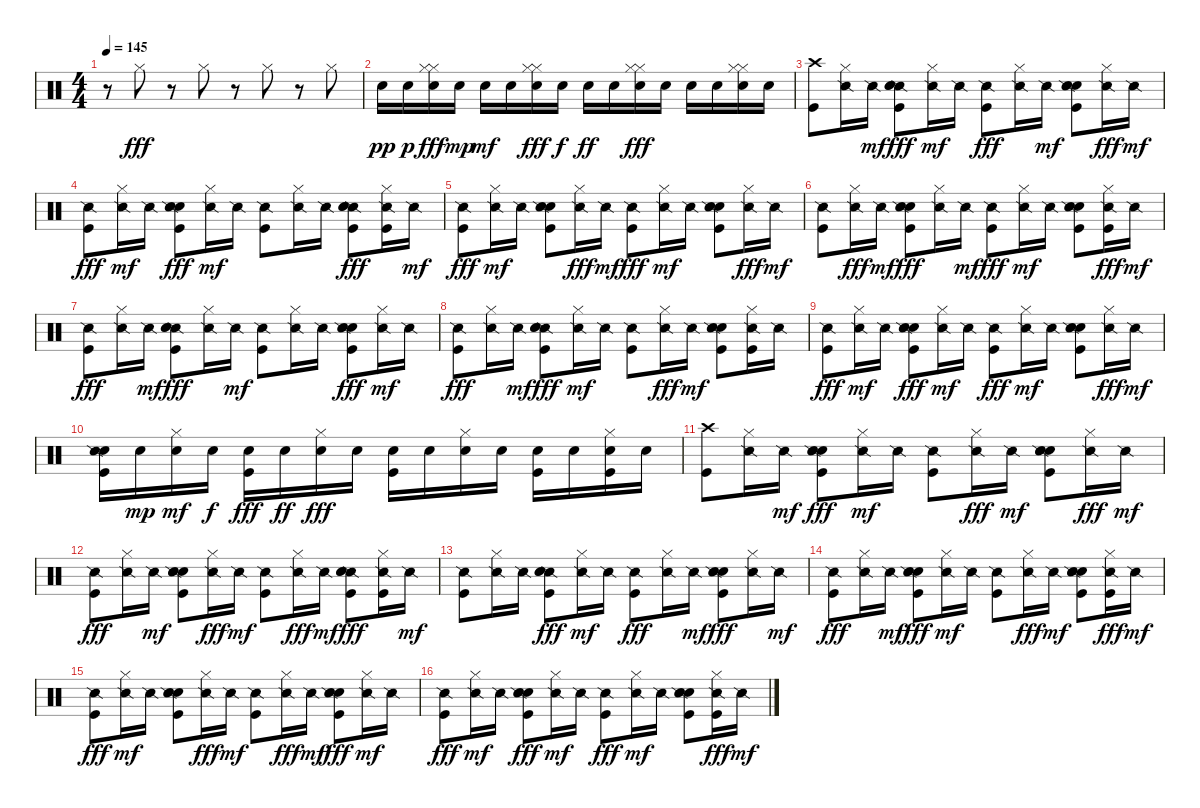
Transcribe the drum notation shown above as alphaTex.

\track "" {instrument percussion}
\staff {score}
\articulation defaults
\ts (4 4)
\tempo 145
\clef neutral
\ks c
r.8{dy fff} "Hi-Hat (closed)".8 r.8 "Hi-Hat (closed)".8 r.8 "Hi-Hat (closed)".8 r.8 "Hi-Hat (closed)".8 |
"Snare (hit) 2".16{dy pp} "Snare (hit) 2".16{dy p} ("Snare (hit) 2" "Hi-Hat (closed)" "Hi-Hat (closed)").16{dy fff} "Snare (hit) 2".16{dy mp} "Snare (hit) 2".16{dy mf} "Snare (hit) 2".16 ("Hi-Hat (closed)" "Snare (hit) 2" "Hi-Hat (closed)").16{dy fff} "Snare (hit) 2".16{dy f} "Snare (hit) 2".16{dy ff} "Snare (hit) 2".16 ("Hi-Hat (closed)" "Snare (hit) 2" "Hi-Hat (closed)").16{dy fff} "Snare (hit) 2".16 "Snare (hit) 2".16 "Snare (hit) 2".16 ("Snare (hit) 2" "Hi-Hat (closed)" "Hi-Hat (closed)").16 "Snare (hit) 2".16 |
("Kick (hit)" "Crash high (hit)").8 ("Snare (side stick) 2" "Hi-Hat (closed)").16 "Snare (side stick) 2".16{dy mf} ("Snare (side stick) 2" "Hand Clap (hit)" "Electric Snare (hit)" "Kick (hit)").8{dy fff} ("Hi-Hat (closed)" "Snare (side stick) 2").16{dy mf} "Snare (side stick) 2".16 ("Snare (side stick) 2" "Kick (hit)").8{dy fff} ("Snare (side stick) 2" "Hi-Hat (closed)").16 "Snare (side stick) 2".16{dy mf} ("Electric Snare (hit)" "Hand Clap (hit)" "Kick (hit)" "Snare (side stick) 2").8 ("Snare (side stick) 2" "Hi-Hat (closed)").16{dy fff} "Snare (side stick) 2".16{dy mf} |
("Snare (side stick) 2" "Kick (hit)").8{dy fff} ("Hi-Hat (closed)" "Snare (side stick) 2").16{dy mf} "Snare (side stick) 2".16 ("Hand Clap (hit)" "Snare (side stick) 2" "Electric Snare (hit)" "Kick (hit)").8{dy fff} ("Hi-Hat (closed)" "Snare (side stick) 2").16{dy mf} "Snare (side stick) 2".16 ("Kick (hit)" "Snare (side stick) 2").8 ("Hi-Hat (closed)" "Snare (side stick) 2").16 "Snare (side stick) 2".16 ("Snare (side stick) 2" "Electric Snare (hit)" "Kick (hit)" "Hand Clap (hit)").8{dy fff} ("Snare (side stick) 2" "Kick (hit)" "Hi-Hat (closed)").16 "Snare (side stick) 2".16{dy mf} |
("Snare (side stick) 2" "Kick (hit)").8{dy fff} ("Hi-Hat (closed)" "Snare (side stick) 2").16{dy mf} "Snare (side stick) 2".16 ("Hand Clap (hit)" "Kick (hit)" "Electric Snare (hit)" "Snare (side stick) 2").8 ("Snare (side stick) 2" "Hi-Hat (closed)").16{dy fff} "Snare (side stick) 2".16{dy mf} ("Snare (side stick) 2" "Kick (hit)").8{dy fff} ("Hi-Hat (closed)" "Snare (side stick) 2").16{dy mf} "Snare (side stick) 2".16 ("Hand Clap (hit)" "Kick (hit)" "Snare (side stick) 2" "Electric Snare (hit)").8 ("Snare (side stick) 2" "Hi-Hat (closed)").16{dy fff} "Snare (side stick) 2".16{dy mf} |
("Kick (hit)" "Snare (side stick) 2").8 ("Snare (side stick) 2" "Hi-Hat (closed)").16{dy fff} "Snare (side stick) 2".16{dy mf} ("Electric Snare (hit)" "Hand Clap (hit)" "Snare (side stick) 2" "Kick (hit)").8{dy fff} ("Snare (side stick) 2" "Hi-Hat (closed)").16 "Snare (side stick) 2".16{dy mf} ("Snare (side stick) 2" "Kick (hit)").8{dy fff} ("Hi-Hat (closed)" "Snare (side stick) 2").16{dy mf} "Snare (side stick) 2".16 ("Kick (hit)" "Hand Clap (hit)" "Electric Snare (hit)" "Snare (side stick) 2").8 ("Snare (side stick) 2" "Hi-Hat (closed)" "Kick (hit)").16{dy fff} "Snare (side stick) 2".16{dy mf} |
("Snare (side stick) 2" "Kick (hit)").8{dy fff} ("Snare (side stick) 2" "Hi-Hat (closed)").16 "Snare (side stick) 2".16{dy mf} ("Snare (side stick) 2" "Kick (hit)" "Electric Snare (hit)" "Hand Clap (hit)").8{dy fff} ("Snare (side stick) 2" "Hi-Hat (closed)").16 "Snare (side stick) 2".16{dy mf} ("Kick (hit)" "Snare (side stick) 2").8 ("Hi-Hat (closed)" "Snare (side stick) 2").16 "Snare (side stick) 2".16 ("Kick (hit)" "Electric Snare (hit)" "Snare (side stick) 2" "Hand Clap (hit)").8{dy fff} ("Hi-Hat (closed)" "Snare (side stick) 2").16{dy mf} "Snare (side stick) 2".16 |
("Snare (side stick) 2" "Kick (hit)").8{dy fff} ("Snare (side stick) 2" "Hi-Hat (closed)").16 "Snare (side stick) 2".16{dy mf} ("Snare (side stick) 2" "Electric Snare (hit)" "Kick (hit)" "Hand Clap (hit)").8{dy fff} ("Hi-Hat (closed)" "Snare (side stick) 2").16{dy mf} "Snare (side stick) 2".16 ("Kick (hit)" "Snare (side stick) 2").8 ("Snare (side stick) 2" "Hi-Hat (closed)").16{dy fff} "Snare (side stick) 2".16{dy mf} ("Kick (hit)" "Hand Clap (hit)" "Snare (side stick) 2" "Electric Snare (hit)").8 ("Kick (hit)" "Hi-Hat (closed)" "Snare (side stick) 2").16 "Snare (side stick) 2".16 |
("Snare (side stick) 2" "Kick (hit)").8{dy fff} ("Hi-Hat (closed)" "Snare (side stick) 2").16{dy mf} "Snare (side stick) 2".16 ("Hand Clap (hit)" "Snare (side stick) 2" "Electric Snare (hit)" "Kick (hit)").8{dy fff} ("Hi-Hat (closed)" "Snare (side stick) 2").16{dy mf} "Snare (side stick) 2".16 ("Snare (side stick) 2" "Kick (hit)").8{dy fff} ("Hi-Hat (closed)" "Snare (side stick) 2").16{dy mf} "Snare (side stick) 2".16 ("Kick (hit)" "Electric Snare (hit)" "Hand Clap (hit)" "Snare (side stick) 2").8 ("Snare (side stick) 2" "Hi-Hat (closed)").16{dy fff} "Snare (side stick) 2".16{dy mf} |
("Snare (hit) 2" "Kick (hit)" "Snare (side stick) 2").16 "Snare (hit) 2".16{dy mp} ("Hi-Hat (closed)" "Snare (hit) 2").16{dy mf} "Snare (hit) 2".16{dy f} ("Snare (hit) 2" "Kick (hit)").16{dy fff} "Snare (hit) 2".16{dy ff} ("Snare (hit) 2" "Hi-Hat (closed)").16{dy fff} "Snare (hit) 2".16 ("Snare (hit) 2" "Kick (hit)").16 "Snare (hit) 2".16 ("Snare (hit) 2" "Hi-Hat (closed)").16 "Snare (hit) 2".16 ("Kick (hit)" "Snare (hit) 2").16 "Snare (hit) 2".16 ("Hi-Hat (closed)" "Kick (hit)" "Snare (hit) 2").16 "Snare (hit) 2".16 |
("Kick (hit)" "Crash high (hit)").8 ("Snare (side stick) 2" "Hi-Hat (closed)").16 "Snare (side stick) 2".16{dy mf} ("Hand Clap (hit)" "Snare (side stick) 2" "Electric Snare (hit)" "Kick (hit)").8{dy fff} ("Hi-Hat (closed)" "Snare (side stick) 2").16{dy mf} "Snare (side stick) 2".16 ("Kick (hit)" "Snare (side stick) 2").8 ("Snare (side stick) 2" "Hi-Hat (closed)").16{dy fff} "Snare (side stick) 2".16{dy mf} ("Kick (hit)" "Hand Clap (hit)" "Electric Snare (hit)" "Snare (side stick) 2").8 ("Snare (side stick) 2" "Hi-Hat (closed)").16{dy fff} "Snare (side stick) 2".16{dy mf} |
("Snare (side stick) 2" "Kick (hit)").8{dy fff} ("Snare (side stick) 2" "Hi-Hat (closed)").16 "Snare (side stick) 2".16{dy mf} ("Kick (hit)" "Hand Clap (hit)" "Snare (side stick) 2" "Electric Snare (hit)").8 ("Snare (side stick) 2" "Hi-Hat (closed)").16{dy fff} "Snare (side stick) 2".16{dy mf} ("Kick (hit)" "Snare (side stick) 2").8 ("Snare (side stick) 2" "Hi-Hat (closed)").16{dy fff} "Snare (side stick) 2".16{dy mf} ("Snare (side stick) 2" "Kick (hit)" "Electric Snare (hit)" "Hand Clap (hit)").8{dy fff} ("Kick (hit)" "Snare (side stick) 2" "Hi-Hat (closed)").16 "Snare (side stick) 2".16{dy mf} |
("Kick (hit)" "Snare (side stick) 2").8 ("Hi-Hat (closed)" "Snare (side stick) 2").16 "Snare (side stick) 2".16 ("Snare (side stick) 2" "Kick (hit)" "Hand Clap (hit)" "Electric Snare (hit)").8{dy fff} ("Hi-Hat (closed)" "Snare (side stick) 2").16{dy mf} "Snare (side stick) 2".16 ("Snare (side stick) 2" "Kick (hit)").8{dy fff} ("Snare (side stick) 2" "Hi-Hat (closed)").16 "Snare (side stick) 2".16{dy mf} ("Electric Snare (hit)" "Kick (hit)" "Snare (side stick) 2" "Hand Clap (hit)").8{dy fff} ("Snare (side stick) 2" "Hi-Hat (closed)").16 "Snare (side stick) 2".16{dy mf} |
("Snare (side stick) 2" "Kick (hit)").8{dy fff} ("Snare (side stick) 2" "Hi-Hat (closed)").16 "Snare (side stick) 2".16{dy mf} ("Hand Clap (hit)" "Snare (side stick) 2" "Kick (hit)" "Electric Snare (hit)").8{dy fff} ("Hi-Hat (closed)" "Snare (side stick) 2").16{dy mf} "Snare (side stick) 2".16 ("Kick (hit)" "Snare (side stick) 2").8 ("Snare (side stick) 2" "Hi-Hat (closed)").16{dy fff} "Snare (side stick) 2".16{dy mf} ("Hand Clap (hit)" "Kick (hit)" "Electric Snare (hit)" "Snare (side stick) 2").8 ("Hi-Hat (closed)" "Snare (side stick) 2" "Kick (hit)").16{dy fff} "Snare (side stick) 2".16{dy mf} |
("Snare (side stick) 2" "Kick (hit)").8{dy fff} ("Hi-Hat (closed)" "Snare (side stick) 2").16{dy mf} "Snare (side stick) 2".16 ("Hand Clap (hit)" "Electric Snare (hit)" "Kick (hit)" "Snare (side stick) 2").8 ("Snare (side stick) 2" "Hi-Hat (closed)").16{dy fff} "Snare (side stick) 2".16{dy mf} ("Kick (hit)" "Snare (side stick) 2").8 ("Snare (side stick) 2" "Hi-Hat (closed)").16{dy fff} "Snare (side stick) 2".16{dy mf} ("Hand Clap (hit)" "Snare (side stick) 2" "Kick (hit)" "Electric Snare (hit)").8{dy fff} ("Hi-Hat (closed)" "Snare (side stick) 2").16{dy mf} "Snare (side stick) 2".16 |
("Snare (side stick) 2" "Kick (hit)").8{dy fff} ("Hi-Hat (closed)" "Snare (side stick) 2").16{dy mf} "Snare (side stick) 2".16 ("Kick (hit)" "Electric Snare (hit)" "Snare (side stick) 2" "Hand Clap (hit)").8{dy fff} ("Hi-Hat (closed)" "Snare (side stick) 2").16{dy mf} "Snare (side stick) 2".16 ("Snare (side stick) 2" "Kick (hit)").8{dy fff} ("Hi-Hat (closed)" "Snare (side stick) 2").16{dy mf} "Snare (side stick) 2".16 ("Kick (hit)" "Hand Clap (hit)" "Electric Snare (hit)" "Snare (side stick) 2").8 ("Snare (side stick) 2" "Kick (hit)" "Hi-Hat (closed)").16{dy fff} "Snare (side stick) 2".16{dy mf}
